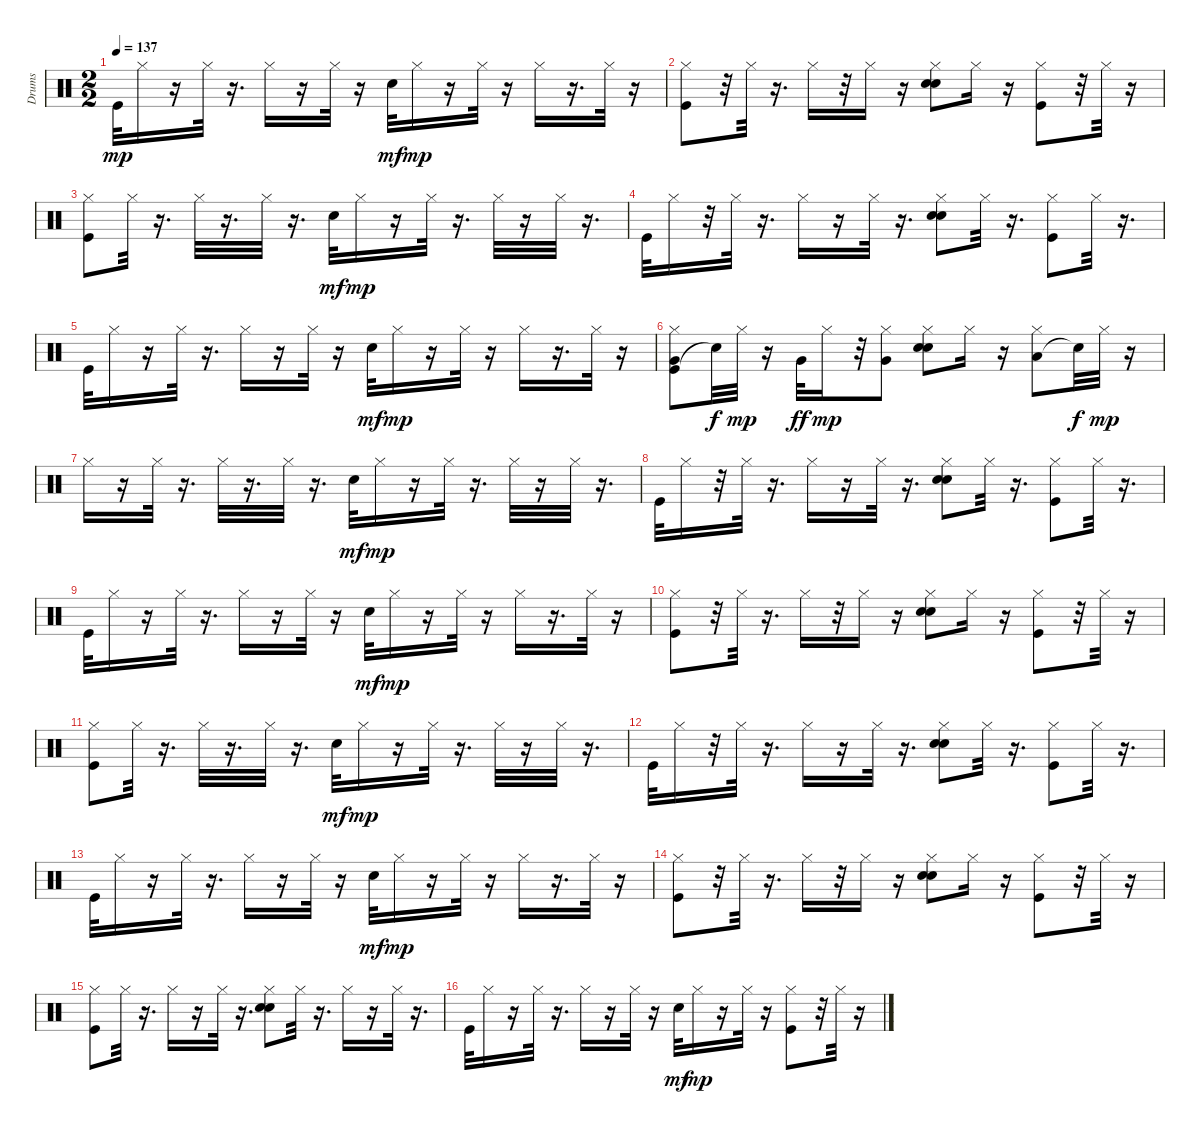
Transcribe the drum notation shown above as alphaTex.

\track ("Drums" "Drums") {instrument percussion}
\staff {score}
\articulation defaults
\ts (2 2)
\tempo 137
\clef neutral
\ks c "Kick (hit)".32{dy mp} "Hi-Hat (closed)".16
r.16 "Hi-Hat (closed)".32 r.16{d} "Hi-Hat (closed)".16 r.16 "Hi-Hat (closed)".32 r.16 "Snare (hit) 2".32{dy mf} "Hi-Hat (closed)".16{dy mp} r.16 "Hi-Hat (closed)".32 r.16 "Hi-Hat (closed)".16 r.16{d} "Hi-Hat (closed)".32 r.16 |
("Kick (hit)" "Hi-Hat (closed)").8 r.32 "Hi-Hat (closed)".32 r.16{d} "Hi-Hat (closed)".16 r.32 "Hi-Hat (closed)".16 r.16 ("Snare (hit) 2" "Hand Clap (hit)" "Hi-Hat (closed)").8 "Hi-Hat (closed)".16 r.16 ("Kick (hit)" "Hi-Hat (closed)").8 r.32 "Hi-Hat (closed)".32 r.16 |
("Kick (hit)" "Hi-Hat (closed)").8 "Hi-Hat (closed)".32 r.16{d} "Hi-Hat (closed)".32 r.16{d} "Hi-Hat (closed)".32 r.16{d} "Snare (hit) 2".32{dy mf} "Hi-Hat (closed)".16{dy mp} r.16 "Hi-Hat (closed)".32 r.16{d} "Hi-Hat (closed)".32 r.16 "Hi-Hat (closed)".32 r.16{d} |
"Kick (hit)".32 "Hi-Hat (closed)".16 r.32 "Hi-Hat (closed)".32 r.16{d} "Hi-Hat (closed)".16 r.16 "Hi-Hat (closed)".32 r.16{d} ("Snare (hit) 2" "Hand Clap (hit)" "Hi-Hat (closed)").8 "Hi-Hat (closed)".32 r.16{d} ("Kick (hit)" "Hi-Hat (closed)").8 "Hi-Hat (closed)".32 r.16{d} |
"Kick (hit)".32 "Hi-Hat (closed)".16 r.16 "Hi-Hat (closed)".32 r.16{d} "Hi-Hat (closed)".16 r.16 "Hi-Hat (closed)".32 r.16 "Snare (hit) 2".32{dy mf} "Hi-Hat (closed)".16{dy mp} r.16 "Hi-Hat (closed)".32 r.16 "Hi-Hat (closed)".16 r.16{d} "Hi-Hat (closed)".32 r.16 |
("Kick (hit)" "Very Low Tom (hit)" "Hi-Hat (closed)").8 "Snare (hit)"{t}.32{dy f} "Hi-Hat (closed)".32{dy mp} r.16 "Very Low Tom (hit)".32{dy ff} "Hi-Hat (closed)".16{dy mp} r.32 ("Very Low Tom (hit)" "Hi-Hat (closed)").8 ("Snare (hit) 2" "Hand Clap (hit)" "Hi-Hat (closed)").8 "Hi-Hat (closed)".16 r.16 ("Low Floor Tom (hit)" "Hi-Hat (closed)").8 "Snare (hit)"{t}.32{dy f} "Hi-Hat (closed)".32{dy mp} r.16 |
"Hi-Hat (closed)".16 r.16 "Hi-Hat (closed)".32 r.16{d} "Hi-Hat (closed)".32 r.16{d} "Hi-Hat (closed)".32 r.16{d} "Snare (hit) 2".32{dy mf} "Hi-Hat (closed)".16{dy mp} r.16 "Hi-Hat (closed)".32 r.16{d} "Hi-Hat (closed)".32 r.16 "Hi-Hat (closed)".32 r.16{d} |
"Kick (hit)".32 "Hi-Hat (closed)".16 r.32 "Hi-Hat (closed)".32 r.16{d} "Hi-Hat (closed)".16 r.16 "Hi-Hat (closed)".32 r.16{d} ("Snare (hit) 2" "Hand Clap (hit)" "Hi-Hat (closed)").8 "Hi-Hat (closed)".32 r.16{d} ("Kick (hit)" "Hi-Hat (closed)").8 "Hi-Hat (closed)".32 r.16{d} |
"Kick (hit)".32 "Hi-Hat (closed)".16 r.16 "Hi-Hat (closed)".32 r.16{d} "Hi-Hat (closed)".16 r.16 "Hi-Hat (closed)".32 r.16 "Snare (hit) 2".32{dy mf} "Hi-Hat (closed)".16{dy mp} r.16 "Hi-Hat (closed)".32 r.16 "Hi-Hat (closed)".16 r.16{d} "Hi-Hat (closed)".32 r.16 |
("Kick (hit)" "Hi-Hat (closed)").8 r.32 "Hi-Hat (closed)".32 r.16{d} "Hi-Hat (closed)".16 r.32 "Hi-Hat (closed)".16 r.16 ("Snare (hit) 2" "Hand Clap (hit)" "Hi-Hat (closed)").8 "Hi-Hat (closed)".16 r.16 ("Kick (hit)" "Hi-Hat (closed)").8 r.32 "Hi-Hat (closed)".32 r.16 |
("Kick (hit)" "Hi-Hat (closed)").8 "Hi-Hat (closed)".32 r.16{d} "Hi-Hat (closed)".32 r.16{d} "Hi-Hat (closed)".32 r.16{d} "Snare (hit) 2".32{dy mf} "Hi-Hat (closed)".16{dy mp} r.16 "Hi-Hat (closed)".32 r.16{d} "Hi-Hat (closed)".32 r.16 "Hi-Hat (closed)".32 r.16{d} |
"Kick (hit)".32 "Hi-Hat (closed)".16 r.32 "Hi-Hat (closed)".32 r.16{d} "Hi-Hat (closed)".16 r.16 "Hi-Hat (closed)".32 r.16{d} ("Snare (hit) 2" "Hand Clap (hit)" "Hi-Hat (closed)").8 "Hi-Hat (closed)".32 r.16{d} ("Kick (hit)" "Hi-Hat (closed)").8 "Hi-Hat (closed)".32 r.16{d} |
"Kick (hit)".32 "Hi-Hat (closed)".16 r.16 "Hi-Hat (closed)".32 r.16{d} "Hi-Hat (closed)".16 r.16 "Hi-Hat (closed)".32 r.16 "Snare (hit) 2".32{dy mf} "Hi-Hat (closed)".16{dy mp} r.16 "Hi-Hat (closed)".32 r.16 "Hi-Hat (closed)".16 r.16{d} "Hi-Hat (closed)".32 r.16 |
("Kick (hit)" "Hi-Hat (closed)").8 r.32 "Hi-Hat (closed)".32 r.16{d} "Hi-Hat (closed)".16 r.32 "Hi-Hat (closed)".16 r.16 ("Snare (hit) 2" "Hand Clap (hit)" "Hi-Hat (closed)").8 "Hi-Hat (closed)".16 r.16 ("Kick (hit)" "Hi-Hat (closed)").8 r.32 "Hi-Hat (closed)".32 r.16 |
("Kick (hit)" "Hi-Hat (closed)").8 "Hi-Hat (closed)".32 r.16{d} "Hi-Hat (closed)".16 r.16 "Hi-Hat (closed)".32 r.16{d} ("Snare (hit) 2" "Hand Clap (hit)" "Hi-Hat (closed)").8 "Hi-Hat (closed)".32 r.16{d} "Hi-Hat (closed)".16 r.16 "Hi-Hat (closed)".32 r.16{d} |
"Kick (hit)".32 "Hi-Hat (closed)".16 r.16 "Hi-Hat (closed)".32 r.16{d} "Hi-Hat (closed)".16 r.16 "Hi-Hat (closed)".32 r.16 "Snare (hit) 2".32{dy mf} "Hi-Hat (closed)".16{dy mp} r.16 "Hi-Hat (closed)".32 r.16 ("Kick (hit)" "Hi-Hat (closed)").8 r.32 "Hi-Hat (closed)".32 r.16
